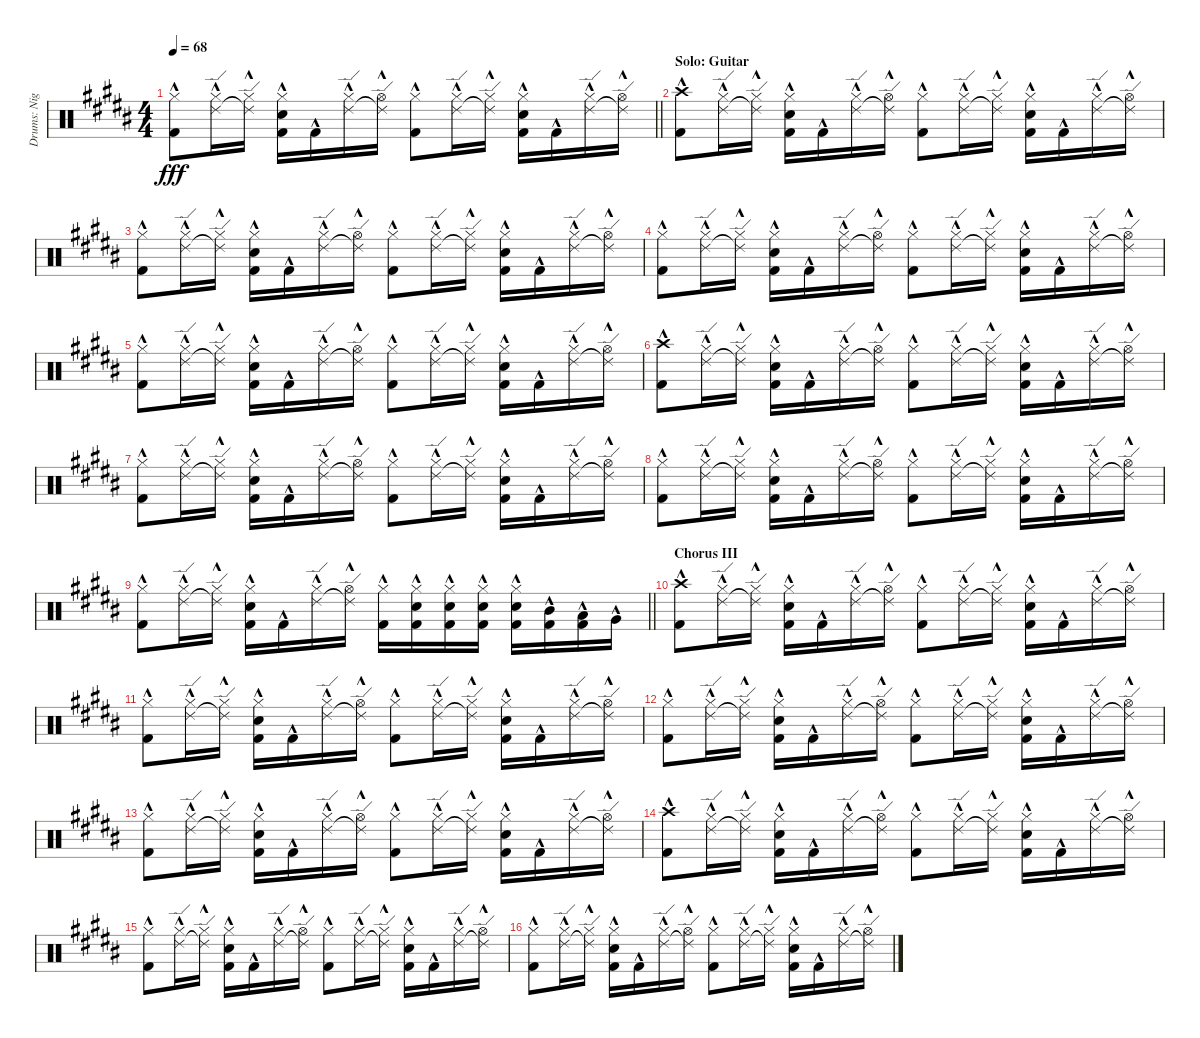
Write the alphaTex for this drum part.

\track ("Drums: Nigel" "Drums: Nig") {instrument percussion}
\staff {score}
\articulation defaults
\ts (4 4)
\tempo 68
\clef neutral
\barLineRight lightlight
\ks b
("Hi-Hat (closed)"{hac} "Kick (hit) 2"{hac}).8{dy fff} ("Ride (edge) 2"{hac} "Hi-Hat (closed)"{hac}).16 ("Ride (edge) 2"{t} "Hi-Hat (closed)"{hac}).16 ("Hi-Hat (closed)"{hac} "Electric Snare (hit)"{hac} "Kick (hit) 2"{hac}).16 "Kick (hit) 2"{hac}.16 ("Ride (edge) 2"{hac} "Hi-Hat (closed)"{hac}).16 ("Ride (edge) 2"{t} "Hi-Hat (open)"{hac}).16 ("Hi-Hat (closed)"{hac} "Kick (hit) 2"{hac}).8 ("Ride (edge) 2"{hac} "Hi-Hat (closed)"{hac}).16 ("Ride (edge) 2"{t} "Hi-Hat (closed)"{hac}).16 ("Hi-Hat (closed)"{hac} "Electric Snare (hit)"{hac} "Kick (hit) 2"{hac}).16 "Kick (hit) 2"{hac}.16 ("Ride (edge) 2"{hac} "Hi-Hat (closed)"{hac}).16 ("Ride (edge) 2"{t} "Hi-Hat (open)"{hac}).16 |
\section ("" "Solo: Guitar")
("Crash high (hit)"{hac} "Kick (hit) 2"{hac}).8 ("Ride (edge) 2"{hac} "Hi-Hat (closed)"{hac}).16 ("Ride (edge) 2"{t} "Hi-Hat (closed)"{hac}).16 ("Hi-Hat (closed)"{hac} "Electric Snare (hit)"{hac} "Kick (hit) 2"{hac}).16 "Kick (hit) 2"{hac}.16 ("Ride (edge) 2"{hac} "Hi-Hat (closed)"{hac}).16 ("Ride (edge) 2"{t} "Hi-Hat (open)"{hac}).16 ("Hi-Hat (closed)"{hac} "Kick (hit) 2"{hac}).8 ("Ride (edge) 2"{hac} "Hi-Hat (closed)"{hac}).16 ("Ride (edge) 2"{t} "Hi-Hat (closed)"{hac}).16 ("Hi-Hat (closed)"{hac} "Electric Snare (hit)"{hac} "Kick (hit) 2"{hac}).16 "Kick (hit) 2"{hac}.16 ("Ride (edge) 2"{hac} "Hi-Hat (closed)"{hac}).16 ("Ride (edge) 2"{t} "Hi-Hat (open)"{hac}).16 |
("Hi-Hat (closed)"{hac} "Kick (hit) 2"{hac}).8 ("Ride (edge) 2"{hac} "Hi-Hat (closed)"{hac}).16 ("Ride (edge) 2"{t} "Hi-Hat (closed)"{hac}).16 ("Hi-Hat (closed)"{hac} "Electric Snare (hit)"{hac} "Kick (hit) 2"{hac}).16 "Kick (hit) 2"{hac}.16 ("Ride (edge) 2"{hac} "Hi-Hat (closed)"{hac}).16 ("Ride (edge) 2"{t} "Hi-Hat (open)"{hac}).16 ("Hi-Hat (closed)"{hac} "Kick (hit) 2"{hac}).8 ("Ride (edge) 2"{hac} "Hi-Hat (closed)"{hac}).16 ("Ride (edge) 2"{t} "Hi-Hat (closed)"{hac}).16 ("Hi-Hat (closed)"{hac} "Electric Snare (hit)"{hac} "Kick (hit) 2"{hac}).16 "Kick (hit) 2"{hac}.16 ("Ride (edge) 2"{hac} "Hi-Hat (closed)"{hac}).16 ("Ride (edge) 2"{t} "Hi-Hat (open)"{hac}).16 |
("Hi-Hat (closed)"{hac} "Kick (hit) 2"{hac}).8 ("Ride (edge) 2"{hac} "Hi-Hat (closed)"{hac}).16 ("Ride (edge) 2"{t} "Hi-Hat (closed)"{hac}).16 ("Hi-Hat (closed)"{hac} "Electric Snare (hit)"{hac} "Kick (hit) 2"{hac}).16 "Kick (hit) 2"{hac}.16 ("Ride (edge) 2"{hac} "Hi-Hat (closed)"{hac}).16 ("Ride (edge) 2"{t} "Hi-Hat (open)"{hac}).16 ("Hi-Hat (closed)"{hac} "Kick (hit) 2"{hac}).8 ("Ride (edge) 2"{hac} "Hi-Hat (closed)"{hac}).16 ("Ride (edge) 2"{t} "Hi-Hat (closed)"{hac}).16 ("Hi-Hat (closed)"{hac} "Electric Snare (hit)"{hac} "Kick (hit) 2"{hac}).16 "Kick (hit) 2"{hac}.16 ("Ride (edge) 2"{hac} "Hi-Hat (closed)"{hac}).16 ("Ride (edge) 2"{t} "Hi-Hat (open)"{hac}).16 |
("Hi-Hat (closed)"{hac} "Kick (hit) 2"{hac}).8 ("Ride (edge) 2"{hac} "Hi-Hat (closed)"{hac}).16 ("Ride (edge) 2"{t} "Hi-Hat (closed)"{hac}).16 ("Hi-Hat (closed)"{hac} "Electric Snare (hit)"{hac} "Kick (hit) 2"{hac}).16 "Kick (hit) 2"{hac}.16 ("Ride (edge) 2"{hac} "Hi-Hat (closed)"{hac}).16 ("Ride (edge) 2"{t} "Hi-Hat (open)"{hac}).16 ("Hi-Hat (closed)"{hac} "Kick (hit) 2"{hac}).8 ("Ride (edge) 2"{hac} "Hi-Hat (closed)"{hac}).16 ("Ride (edge) 2"{t} "Hi-Hat (closed)"{hac}).16 ("Hi-Hat (closed)"{hac} "Electric Snare (hit)"{hac} "Kick (hit) 2"{hac}).16 "Kick (hit) 2"{hac}.16 ("Ride (edge) 2"{hac} "Hi-Hat (closed)"{hac}).16 ("Ride (edge) 2"{t} "Hi-Hat (open)"{hac}).16 |
("Crash high (hit)"{hac} "Kick (hit) 2"{hac}).8 ("Ride (edge) 2"{hac} "Hi-Hat (closed)"{hac}).16 ("Ride (edge) 2"{t} "Hi-Hat (closed)"{hac}).16 ("Hi-Hat (closed)"{hac} "Electric Snare (hit)"{hac} "Kick (hit) 2"{hac}).16 "Kick (hit) 2"{hac}.16 ("Ride (edge) 2"{hac} "Hi-Hat (closed)"{hac}).16 ("Ride (edge) 2"{t} "Hi-Hat (open)"{hac}).16 ("Hi-Hat (closed)"{hac} "Kick (hit) 2"{hac}).8 ("Ride (edge) 2"{hac} "Hi-Hat (closed)"{hac}).16 ("Ride (edge) 2"{t} "Hi-Hat (closed)"{hac}).16 ("Hi-Hat (closed)"{hac} "Electric Snare (hit)"{hac} "Kick (hit) 2"{hac}).16 "Kick (hit) 2"{hac}.16 ("Ride (edge) 2"{hac} "Hi-Hat (closed)"{hac}).16 ("Ride (edge) 2"{t} "Hi-Hat (open)"{hac}).16 |
("Hi-Hat (closed)"{hac} "Kick (hit) 2"{hac}).8 ("Ride (edge) 2"{hac} "Hi-Hat (closed)"{hac}).16 ("Ride (edge) 2"{t} "Hi-Hat (closed)"{hac}).16 ("Hi-Hat (closed)"{hac} "Electric Snare (hit)"{hac} "Kick (hit) 2"{hac}).16 "Kick (hit) 2"{hac}.16 ("Ride (edge) 2"{hac} "Hi-Hat (closed)"{hac}).16 ("Ride (edge) 2"{t} "Hi-Hat (open)"{hac}).16 ("Hi-Hat (closed)"{hac} "Kick (hit) 2"{hac}).8 ("Ride (edge) 2"{hac} "Hi-Hat (closed)"{hac}).16 ("Ride (edge) 2"{t} "Hi-Hat (closed)"{hac}).16 ("Hi-Hat (closed)"{hac} "Electric Snare (hit)"{hac} "Kick (hit) 2"{hac}).16 "Kick (hit) 2"{hac}.16 ("Ride (edge) 2"{hac} "Hi-Hat (closed)"{hac}).16 ("Ride (edge) 2"{t} "Hi-Hat (open)"{hac}).16 |
("Hi-Hat (closed)"{hac} "Kick (hit) 2"{hac}).8 ("Ride (edge) 2"{hac} "Hi-Hat (closed)"{hac}).16 ("Ride (edge) 2"{t} "Hi-Hat (closed)"{hac}).16 ("Hi-Hat (closed)"{hac} "Electric Snare (hit)"{hac} "Kick (hit) 2"{hac}).16 "Kick (hit) 2"{hac}.16 ("Ride (edge) 2"{hac} "Hi-Hat (closed)"{hac}).16 ("Ride (edge) 2"{t} "Hi-Hat (open)"{hac}).16 ("Hi-Hat (closed)"{hac} "Kick (hit) 2"{hac}).8 ("Ride (edge) 2"{hac} "Hi-Hat (closed)"{hac}).16 ("Ride (edge) 2"{t} "Hi-Hat (closed)"{hac}).16 ("Hi-Hat (closed)"{hac} "Electric Snare (hit)"{hac} "Kick (hit) 2"{hac}).16 "Kick (hit) 2"{hac}.16 ("Ride (edge) 2"{hac} "Hi-Hat (closed)"{hac}).16 ("Ride (edge) 2"{t} "Hi-Hat (open)"{hac}).16 |
\barLineRight lightlight
("Hi-Hat (closed)"{hac} "Kick (hit) 2"{hac}).8 ("Ride (edge) 2"{hac} "Hi-Hat (closed)"{hac}).16 ("Ride (edge) 2"{t} "Hi-Hat (closed)"{hac}).16 ("Hi-Hat (closed)"{hac} "Electric Snare (hit)"{hac} "Kick (hit) 2"{hac}).16 "Kick (hit) 2"{hac}.16 ("Ride (edge) 2"{hac} "Hi-Hat (closed)"{hac}).16 ("Ride (edge) 2"{t} "Hi-Hat (open)"{hac}).16 ("Hi-Hat (closed)"{hac} "Kick (hit) 2"{hac}).16 ("Hi-Hat (closed)"{hac} "Electric Snare (hit)"{hac} "Kick (hit) 2"{hac}).16 ("Hi-Hat (closed)"{hac} "Electric Snare (hit)"{hac} "Kick (hit) 2"{hac}).16 ("Hi-Hat (closed)"{hac} "Electric Snare (hit)"{hac} "Kick (hit) 2"{hac}).16 ("Hi-Hat (closed)"{hac} "Electric Snare (hit)"{hac} "Kick (hit) 2"{hac}).16 ("Mid Tom (hit)"{hac} "Kick (hit) 2"{hac}).16 ("Low Tom (hit)"{hac} "Kick (hit) 2"{hac}).16 "Very Low Tom (hit)"{hac}.16 |
\section ("" "Chorus III")
("Crash high (hit)"{hac} "Kick (hit) 2"{hac}).8 ("Ride (edge) 2"{hac} "Hi-Hat (closed)"{hac}).16 ("Ride (edge) 2"{t} "Hi-Hat (closed)"{hac}).16 ("Hi-Hat (closed)"{hac} "Electric Snare (hit)"{hac} "Kick (hit) 2"{hac}).16 "Kick (hit) 2"{hac}.16 ("Ride (edge) 2"{hac} "Hi-Hat (closed)"{hac}).16 ("Ride (edge) 2"{t} "Hi-Hat (open)"{hac}).16 ("Hi-Hat (closed)"{hac} "Kick (hit) 2"{hac}).8 ("Ride (edge) 2"{hac} "Hi-Hat (closed)"{hac}).16 ("Ride (edge) 2"{t} "Hi-Hat (closed)"{hac}).16 ("Hi-Hat (closed)"{hac} "Electric Snare (hit)"{hac} "Kick (hit) 2"{hac}).16 "Kick (hit) 2"{hac}.16 ("Ride (edge) 2"{hac} "Hi-Hat (closed)"{hac}).16 ("Ride (edge) 2"{t} "Hi-Hat (open)"{hac}).16 |
("Hi-Hat (closed)"{hac} "Kick (hit) 2"{hac}).8 ("Ride (edge) 2"{hac} "Hi-Hat (closed)"{hac}).16 ("Ride (edge) 2"{t} "Hi-Hat (closed)"{hac}).16 ("Hi-Hat (closed)"{hac} "Electric Snare (hit)"{hac} "Kick (hit) 2"{hac}).16 "Kick (hit) 2"{hac}.16 ("Ride (edge) 2"{hac} "Hi-Hat (closed)"{hac}).16 ("Ride (edge) 2"{t} "Hi-Hat (open)"{hac}).16 ("Hi-Hat (closed)"{hac} "Kick (hit) 2"{hac}).8 ("Ride (edge) 2"{hac} "Hi-Hat (closed)"{hac}).16 ("Ride (edge) 2"{t} "Hi-Hat (closed)"{hac}).16 ("Hi-Hat (closed)"{hac} "Electric Snare (hit)"{hac} "Kick (hit) 2"{hac}).16 "Kick (hit) 2"{hac}.16 ("Ride (edge) 2"{hac} "Hi-Hat (closed)"{hac}).16 ("Ride (edge) 2"{t} "Hi-Hat (open)"{hac}).16 |
("Hi-Hat (closed)"{hac} "Kick (hit) 2"{hac}).8 ("Ride (edge) 2"{hac} "Hi-Hat (closed)"{hac}).16 ("Ride (edge) 2"{t} "Hi-Hat (closed)"{hac}).16 ("Hi-Hat (closed)"{hac} "Electric Snare (hit)"{hac} "Kick (hit) 2"{hac}).16 "Kick (hit) 2"{hac}.16 ("Ride (edge) 2"{hac} "Hi-Hat (closed)"{hac}).16 ("Ride (edge) 2"{t} "Hi-Hat (open)"{hac}).16 ("Hi-Hat (closed)"{hac} "Kick (hit) 2"{hac}).8 ("Ride (edge) 2"{hac} "Hi-Hat (closed)"{hac}).16 ("Ride (edge) 2"{t} "Hi-Hat (closed)"{hac}).16 ("Hi-Hat (closed)"{hac} "Electric Snare (hit)"{hac} "Kick (hit) 2"{hac}).16 "Kick (hit) 2"{hac}.16 ("Ride (edge) 2"{hac} "Hi-Hat (closed)"{hac}).16 ("Ride (edge) 2"{t} "Hi-Hat (open)"{hac}).16 |
("Hi-Hat (closed)"{hac} "Kick (hit) 2"{hac}).8 ("Ride (edge) 2"{hac} "Hi-Hat (closed)"{hac}).16 ("Ride (edge) 2"{t} "Hi-Hat (closed)"{hac}).16 ("Hi-Hat (closed)"{hac} "Electric Snare (hit)"{hac} "Kick (hit) 2"{hac}).16 "Kick (hit) 2"{hac}.16 ("Ride (edge) 2"{hac} "Hi-Hat (closed)"{hac}).16 ("Ride (edge) 2"{t} "Hi-Hat (open)"{hac}).16 ("Hi-Hat (closed)"{hac} "Kick (hit) 2"{hac}).8 ("Ride (edge) 2"{hac} "Hi-Hat (closed)"{hac}).16 ("Ride (edge) 2"{t} "Hi-Hat (closed)"{hac}).16 ("Hi-Hat (closed)"{hac} "Electric Snare (hit)"{hac} "Kick (hit) 2"{hac}).16 "Kick (hit) 2"{hac}.16 ("Ride (edge) 2"{hac} "Hi-Hat (closed)"{hac}).16 ("Ride (edge) 2"{t} "Hi-Hat (open)"{hac}).16 |
("Crash high (hit)"{hac} "Kick (hit) 2"{hac}).8 ("Ride (edge) 2"{hac} "Hi-Hat (closed)"{hac}).16 ("Ride (edge) 2"{t} "Hi-Hat (closed)"{hac}).16 ("Hi-Hat (closed)"{hac} "Electric Snare (hit)"{hac} "Kick (hit) 2"{hac}).16 "Kick (hit) 2"{hac}.16 ("Ride (edge) 2"{hac} "Hi-Hat (closed)"{hac}).16 ("Ride (edge) 2"{t} "Hi-Hat (open)"{hac}).16 ("Hi-Hat (closed)"{hac} "Kick (hit) 2"{hac}).8 ("Ride (edge) 2"{hac} "Hi-Hat (closed)"{hac}).16 ("Ride (edge) 2"{t} "Hi-Hat (closed)"{hac}).16 ("Hi-Hat (closed)"{hac} "Electric Snare (hit)"{hac} "Kick (hit) 2"{hac}).16 "Kick (hit) 2"{hac}.16 ("Ride (edge) 2"{hac} "Hi-Hat (closed)"{hac}).16 ("Ride (edge) 2"{t} "Hi-Hat (open)"{hac}).16 |
("Hi-Hat (closed)"{hac} "Kick (hit) 2"{hac}).8 ("Ride (edge) 2"{hac} "Hi-Hat (closed)"{hac}).16 ("Ride (edge) 2"{t} "Hi-Hat (closed)"{hac}).16 ("Hi-Hat (closed)"{hac} "Electric Snare (hit)"{hac} "Kick (hit) 2"{hac}).16 "Kick (hit) 2"{hac}.16 ("Ride (edge) 2"{hac} "Hi-Hat (closed)"{hac}).16 ("Ride (edge) 2"{t} "Hi-Hat (open)"{hac}).16 ("Hi-Hat (closed)"{hac} "Kick (hit) 2"{hac}).8 ("Ride (edge) 2"{hac} "Hi-Hat (closed)"{hac}).16 ("Ride (edge) 2"{t} "Hi-Hat (closed)"{hac}).16 ("Hi-Hat (closed)"{hac} "Electric Snare (hit)"{hac} "Kick (hit) 2"{hac}).16 "Kick (hit) 2"{hac}.16 ("Ride (edge) 2"{hac} "Hi-Hat (closed)"{hac}).16 ("Ride (edge) 2"{t} "Hi-Hat (open)"{hac}).16 |
("Hi-Hat (closed)"{hac} "Kick (hit) 2"{hac}).8 ("Ride (edge) 2"{hac} "Hi-Hat (closed)"{hac}).16 ("Ride (edge) 2"{t} "Hi-Hat (closed)"{hac}).16 ("Hi-Hat (closed)"{hac} "Electric Snare (hit)"{hac} "Kick (hit) 2"{hac}).16 "Kick (hit) 2"{hac}.16 ("Ride (edge) 2"{hac} "Hi-Hat (closed)"{hac}).16 ("Ride (edge) 2"{t} "Hi-Hat (open)"{hac}).16 ("Hi-Hat (closed)"{hac} "Kick (hit) 2"{hac}).8 ("Ride (edge) 2"{hac} "Hi-Hat (closed)"{hac}).16 ("Ride (edge) 2"{t} "Hi-Hat (closed)"{hac}).16 ("Hi-Hat (closed)"{hac} "Electric Snare (hit)"{hac} "Kick (hit) 2"{hac}).16 "Kick (hit) 2"{hac}.16 ("Ride (edge) 2"{hac} "Hi-Hat (closed)"{hac}).16 ("Ride (edge) 2"{t} "Hi-Hat (open)"{hac}).16
